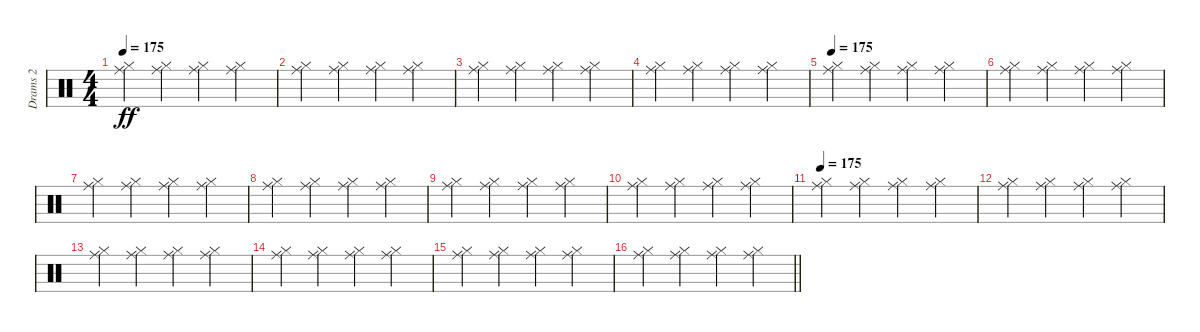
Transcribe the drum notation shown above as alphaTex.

\track ("Drams 2" "Drams 2") {instrument percussion}
\staff {score}
\articulation defaults
\ts (4 4)
\tempo 175
\clef neutral
\ks c
("Ride (middle)" "Hi-Hat (closed)").4{dy ff} ("Ride (middle)" "Hi-Hat (closed)").4 ("Ride (middle)" "Hi-Hat (closed)").4 ("Ride (middle)" "Hi-Hat (closed)").4 |
("Ride (middle)" "Hi-Hat (closed)").4 ("Ride (middle)" "Hi-Hat (closed)").4 ("Ride (middle)" "Hi-Hat (closed)").4 ("Ride (middle)" "Hi-Hat (closed)").4 |
("Ride (middle)" "Hi-Hat (closed)").4 ("Ride (middle)" "Hi-Hat (closed)").4 ("Ride (middle)" "Hi-Hat (closed)").4 ("Ride (middle)" "Hi-Hat (closed)").4 |
("Ride (middle)" "Hi-Hat (closed)").4 ("Ride (middle)" "Hi-Hat (closed)").4 ("Ride (middle)" "Hi-Hat (closed)").4 ("Ride (middle)" "Hi-Hat (closed)").4 |
\tempo 175
("Ride (middle)" "Hi-Hat (closed)").4 ("Ride (middle)" "Hi-Hat (closed)").4 ("Ride (middle)" "Hi-Hat (closed)").4 ("Ride (middle)" "Hi-Hat (closed)").4 |
("Ride (middle)" "Hi-Hat (closed)").4 ("Ride (middle)" "Hi-Hat (closed)").4 ("Ride (middle)" "Hi-Hat (closed)").4 ("Ride (middle)" "Hi-Hat (closed)").4 |
("Ride (middle)" "Hi-Hat (closed)").4 ("Ride (middle)" "Hi-Hat (closed)").4 ("Ride (middle)" "Hi-Hat (closed)").4 ("Ride (middle)" "Hi-Hat (closed)").4 |
("Ride (middle)" "Hi-Hat (closed)").4 ("Ride (middle)" "Hi-Hat (closed)").4 ("Ride (middle)" "Hi-Hat (closed)").4 ("Ride (middle)" "Hi-Hat (closed)").4 |
("Ride (middle)" "Hi-Hat (closed)").4 ("Ride (middle)" "Hi-Hat (closed)").4 ("Ride (middle)" "Hi-Hat (closed)").4 ("Ride (middle)" "Hi-Hat (closed)").4 |
("Ride (middle)" "Hi-Hat (closed)").4 ("Ride (middle)" "Hi-Hat (closed)").4 ("Ride (middle)" "Hi-Hat (closed)").4 ("Ride (middle)" "Hi-Hat (closed)").4 |
\tempo 175
("Ride (middle)" "Hi-Hat (closed)").4 ("Ride (middle)" "Hi-Hat (closed)").4 ("Ride (middle)" "Hi-Hat (closed)").4 ("Ride (middle)" "Hi-Hat (closed)").4 |
("Ride (middle)" "Hi-Hat (closed)").4 ("Ride (middle)" "Hi-Hat (closed)").4 ("Ride (middle)" "Hi-Hat (closed)").4 ("Ride (middle)" "Hi-Hat (closed)").4 |
("Ride (middle)" "Hi-Hat (closed)").4 ("Ride (middle)" "Hi-Hat (closed)").4 ("Ride (middle)" "Hi-Hat (closed)").4 ("Ride (middle)" "Hi-Hat (closed)").4 |
("Ride (middle)" "Hi-Hat (closed)").4 ("Ride (middle)" "Hi-Hat (closed)").4 ("Ride (middle)" "Hi-Hat (closed)").4 ("Ride (middle)" "Hi-Hat (closed)").4 |
("Ride (middle)" "Hi-Hat (closed)").4 ("Ride (middle)" "Hi-Hat (closed)").4 ("Ride (middle)" "Hi-Hat (closed)").4 ("Ride (middle)" "Hi-Hat (closed)").4 |
\barLineRight lightlight
("Ride (middle)" "Hi-Hat (closed)").4 ("Ride (middle)" "Hi-Hat (closed)").4 ("Ride (middle)" "Hi-Hat (closed)").4 ("Ride (middle)" "Hi-Hat (closed)").4
